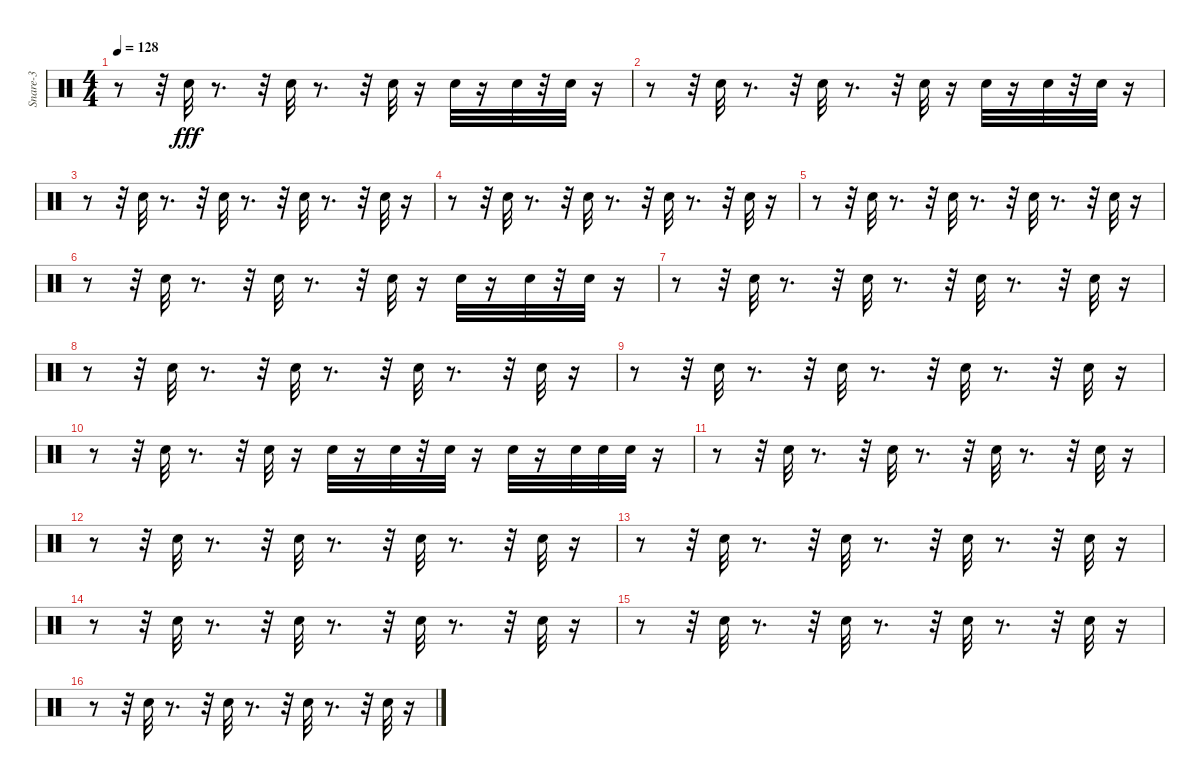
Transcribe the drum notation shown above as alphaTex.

\track ("Snare-3" "Snare-3") {instrument percussion}
\staff {score}
\articulation defaults
\ts (4 4)
\tempo 128
\clef neutral
\ks c
r.8{dy fff} r.32 "Electric Snare (hit)".32 r.8{d} r.32 "Electric Snare (hit)".32 r.8{d} r.32 "Electric Snare (hit)".32 r.16 "Electric Snare (hit)".32 r.16 "Electric Snare (hit)".32 r.32 "Electric Snare (hit)".32 r.16 |
r.8 r.32 "Electric Snare (hit)".32 r.8{d} r.32 "Electric Snare (hit)".32 r.8{d} r.32 "Electric Snare (hit)".32 r.16 "Electric Snare (hit)".32 r.16 "Electric Snare (hit)".32 r.32 "Electric Snare (hit)".32 r.16 |
r.8 r.32 "Electric Snare (hit)".32 r.8{d} r.32 "Electric Snare (hit)".32 r.8{d} r.32 "Electric Snare (hit)".32 r.8{d} r.32 "Electric Snare (hit)".32 r.16 |
r.8 r.32 "Electric Snare (hit)".32 r.8{d} r.32 "Electric Snare (hit)".32 r.8{d} r.32 "Electric Snare (hit)".32 r.8{d} r.32 "Electric Snare (hit)".32 r.16 |
r.8 r.32 "Electric Snare (hit)".32 r.8{d} r.32 "Electric Snare (hit)".32 r.8{d} r.32 "Electric Snare (hit)".32 r.8{d} r.32 "Electric Snare (hit)".32 r.16 |
r.8 r.32 "Electric Snare (hit)".32 r.8{d} r.32 "Electric Snare (hit)".32 r.8{d} r.32 "Electric Snare (hit)".32 r.16 "Electric Snare (hit)".32 r.16 "Electric Snare (hit)".32 r.32 "Electric Snare (hit)".32 r.16 |
r.8 r.32 "Electric Snare (hit)".32 r.8{d} r.32 "Electric Snare (hit)".32 r.8{d} r.32 "Electric Snare (hit)".32 r.8{d} r.32 "Electric Snare (hit)".32 r.16 |
r.8 r.32 "Electric Snare (hit)".32 r.8{d} r.32 "Electric Snare (hit)".32 r.8{d} r.32 "Electric Snare (hit)".32 r.8{d} r.32 "Electric Snare (hit)".32 r.16 |
r.8 r.32 "Electric Snare (hit)".32 r.8{d} r.32 "Electric Snare (hit)".32 r.8{d} r.32 "Electric Snare (hit)".32 r.8{d} r.32 "Electric Snare (hit)".32 r.16 |
r.8 r.32 "Electric Snare (hit)".32 r.8{d} r.32 "Electric Snare (hit)".32 r.16 "Electric Snare (hit)".32 r.16 "Electric Snare (hit)".32 r.32 "Electric Snare (hit)".32 r.16 "Electric Snare (hit)".32 r.16 "Electric Snare (hit)".32 "Electric Snare (hit)".32 "Electric Snare (hit)".32 r.16 |
r.8 r.32 "Electric Snare (hit)".32 r.8{d} r.32 "Electric Snare (hit)".32 r.8{d} r.32 "Electric Snare (hit)".32 r.8{d} r.32 "Electric Snare (hit)".32 r.16 |
r.8 r.32 "Electric Snare (hit)".32 r.8{d} r.32 "Electric Snare (hit)".32 r.8{d} r.32 "Electric Snare (hit)".32 r.8{d} r.32 "Electric Snare (hit)".32 r.16 |
r.8 r.32 "Electric Snare (hit)".32 r.8{d} r.32 "Electric Snare (hit)".32 r.8{d} r.32 "Electric Snare (hit)".32 r.8{d} r.32 "Electric Snare (hit)".32 r.16 |
r.8 r.32 "Electric Snare (hit)".32 r.8{d} r.32 "Electric Snare (hit)".32 r.8{d} r.32 "Electric Snare (hit)".32 r.8{d} r.32 "Electric Snare (hit)".32 r.16 |
r.8 r.32 "Electric Snare (hit)".32 r.8{d} r.32 "Electric Snare (hit)".32 r.8{d} r.32 "Electric Snare (hit)".32 r.8{d} r.32 "Electric Snare (hit)".32 r.16 |
r.8 r.32 "Electric Snare (hit)".32 r.8{d} r.32 "Electric Snare (hit)".32 r.8{d} r.32 "Electric Snare (hit)".32 r.8{d} r.32 "Electric Snare (hit)".32 r.16
